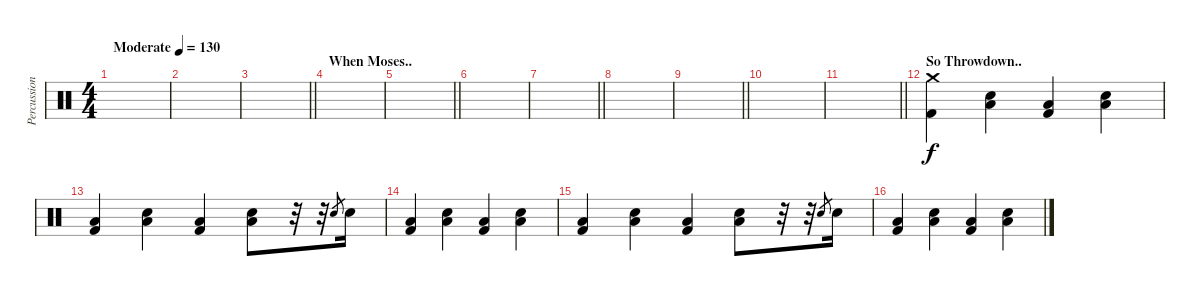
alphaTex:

\track ("Percussion" "Percussion") {instrument percussion}
\staff {score}
\articulation defaults
\ts (4 4)
\tempo (130 "Moderate")
\clef neutral
\ks c
|
|
\barLineRight lightlight
|
\section ("" "When Moses..")
|
\barLineRight lightlight
|
|
\barLineRight lightlight
|
|
\barLineRight lightlight
|
|
\barLineRight lightlight
|
\section ("" "So Throwdown..")
("Crash medium (hit)" "Kick (hit) 2").4 ("Low Floor Tom (hit)" "Electric Snare (hit)").4 ("Low Floor Tom (hit)" "Kick (hit) 2").4 ("Low Floor Tom (hit)" "Electric Snare (hit)").4 |
("Low Floor Tom (hit)" "Kick (hit) 2").4 ("Low Floor Tom (hit)" "Electric Snare (hit)").4 ("Low Floor Tom (hit)" "Kick (hit) 2").4 ("Low Floor Tom (hit)" "Electric Snare (hit)").8 r.32 r.32 "Electric Snare (hit)".8{gr} "Electric Snare (hit)".16 |
("Low Floor Tom (hit)" "Kick (hit) 2").4 ("Low Floor Tom (hit)" "Electric Snare (hit)").4 ("Low Floor Tom (hit)" "Kick (hit) 2").4 ("Low Floor Tom (hit)" "Electric Snare (hit)").4 |
("Low Floor Tom (hit)" "Kick (hit) 2").4 ("Low Floor Tom (hit)" "Electric Snare (hit)").4 ("Low Floor Tom (hit)" "Kick (hit) 2").4 ("Low Floor Tom (hit)" "Electric Snare (hit)").8 r.32 r.32 "Electric Snare (hit)".8{gr} "Electric Snare (hit)".16 |
("Low Floor Tom (hit)" "Kick (hit) 2").4 ("Low Floor Tom (hit)" "Electric Snare (hit)").4 ("Low Floor Tom (hit)" "Kick (hit) 2").4 ("Low Floor Tom (hit)" "Electric Snare (hit)").4
